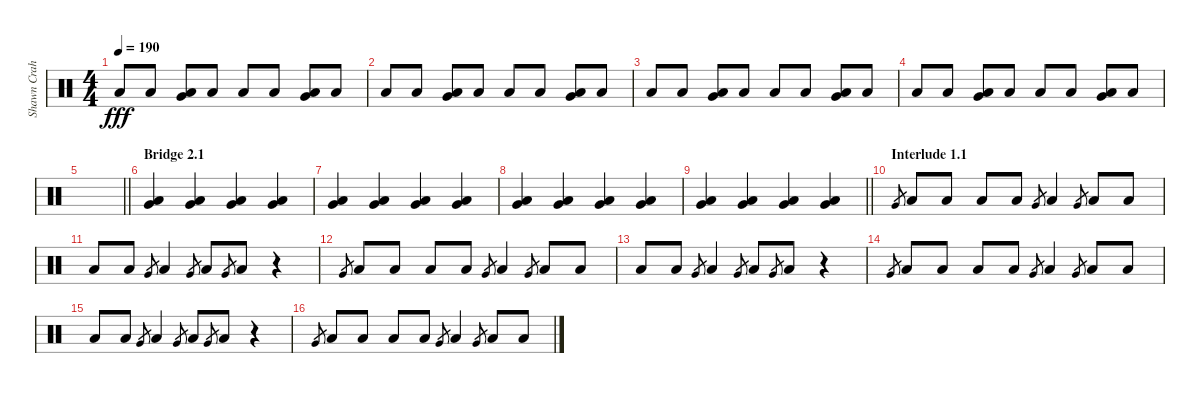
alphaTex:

\track ("Shawn Crahan" "Shawn Crah") {instrument percussion}
\staff {score}
\articulation defaults
\ts (4 4)
\tempo 190
\clef neutral
\ks c "Low Floor Tom (hit)".8{dy fff} "Low Floor Tom (hit)".8
("Very Low Tom (hit)" "Low Floor Tom (hit)").8 "Low Floor Tom (hit)".8 "Low Floor Tom (hit)".8 "Low Floor Tom (hit)".8 ("Very Low Tom (hit)" "Low Floor Tom (hit)").8 "Low Floor Tom (hit)".8 |
"Low Floor Tom (hit)".8 "Low Floor Tom (hit)".8 ("Very Low Tom (hit)" "Low Floor Tom (hit)").8 "Low Floor Tom (hit)".8 "Low Floor Tom (hit)".8 "Low Floor Tom (hit)".8 ("Very Low Tom (hit)" "Low Floor Tom (hit)").8 "Low Floor Tom (hit)".8 |
"Low Floor Tom (hit)".8 "Low Floor Tom (hit)".8 ("Very Low Tom (hit)" "Low Floor Tom (hit)").8 "Low Floor Tom (hit)".8 "Low Floor Tom (hit)".8 "Low Floor Tom (hit)".8 ("Very Low Tom (hit)" "Low Floor Tom (hit)").8 "Low Floor Tom (hit)".8 |
"Low Floor Tom (hit)".8 "Low Floor Tom (hit)".8 ("Very Low Tom (hit)" "Low Floor Tom (hit)").8 "Low Floor Tom (hit)".8 "Low Floor Tom (hit)".8 "Low Floor Tom (hit)".8 ("Very Low Tom (hit)" "Low Floor Tom (hit)").8 "Low Floor Tom (hit)".8 |
\barLineRight lightlight
|
\section ("" "Bridge 2.1")
("Very Low Tom (hit)" "Low Floor Tom (hit)").4 ("Very Low Tom (hit)" "Low Floor Tom (hit)").4 ("Very Low Tom (hit)" "Low Floor Tom (hit)").4 ("Very Low Tom (hit)" "Low Floor Tom (hit)").4 |
("Very Low Tom (hit)" "Low Floor Tom (hit)").4 ("Very Low Tom (hit)" "Low Floor Tom (hit)").4 ("Very Low Tom (hit)" "Low Floor Tom (hit)").4 ("Very Low Tom (hit)" "Low Floor Tom (hit)").4 |
("Very Low Tom (hit)" "Low Floor Tom (hit)").4 ("Very Low Tom (hit)" "Low Floor Tom (hit)").4 ("Very Low Tom (hit)" "Low Floor Tom (hit)").4 ("Very Low Tom (hit)" "Low Floor Tom (hit)").4 |
\barLineRight lightlight
("Very Low Tom (hit)" "Low Floor Tom (hit)").4 ("Very Low Tom (hit)" "Low Floor Tom (hit)").4 ("Very Low Tom (hit)" "Low Floor Tom (hit)").4 ("Very Low Tom (hit)" "Low Floor Tom (hit)").4 |
\section ("" "Interlude 1.1")
"Very Low Tom (hit)".8{gr} "Low Floor Tom (hit)".8 "Low Floor Tom (hit)".8 "Low Floor Tom (hit)".8 "Low Floor Tom (hit)".8 "Very Low Tom (hit)".8{gr} "Low Floor Tom (hit)".4 "Very Low Tom (hit)".8{gr} "Low Floor Tom (hit)".8 "Low Floor Tom (hit)".8 |
"Low Floor Tom (hit)".8 "Low Floor Tom (hit)".8 "Very Low Tom (hit)".8{gr} "Low Floor Tom (hit)".4 "Very Low Tom (hit)".8{gr} "Low Floor Tom (hit)".8 "Very Low Tom (hit)".8{gr} "Low Floor Tom (hit)".8 r.4 |
"Very Low Tom (hit)".8{gr} "Low Floor Tom (hit)".8 "Low Floor Tom (hit)".8 "Low Floor Tom (hit)".8 "Low Floor Tom (hit)".8 "Very Low Tom (hit)".8{gr} "Low Floor Tom (hit)".4 "Very Low Tom (hit)".8{gr} "Low Floor Tom (hit)".8 "Low Floor Tom (hit)".8 |
"Low Floor Tom (hit)".8 "Low Floor Tom (hit)".8 "Very Low Tom (hit)".8{gr} "Low Floor Tom (hit)".4 "Very Low Tom (hit)".8{gr} "Low Floor Tom (hit)".8 "Very Low Tom (hit)".8{gr} "Low Floor Tom (hit)".8 r.4 |
"Very Low Tom (hit)".8{gr} "Low Floor Tom (hit)".8 "Low Floor Tom (hit)".8 "Low Floor Tom (hit)".8 "Low Floor Tom (hit)".8 "Very Low Tom (hit)".8{gr} "Low Floor Tom (hit)".4 "Very Low Tom (hit)".8{gr} "Low Floor Tom (hit)".8 "Low Floor Tom (hit)".8 |
"Low Floor Tom (hit)".8 "Low Floor Tom (hit)".8 "Very Low Tom (hit)".8{gr} "Low Floor Tom (hit)".4 "Very Low Tom (hit)".8{gr} "Low Floor Tom (hit)".8 "Very Low Tom (hit)".8{gr} "Low Floor Tom (hit)".8 r.4 |
"Very Low Tom (hit)".8{gr} "Low Floor Tom (hit)".8 "Low Floor Tom (hit)".8 "Low Floor Tom (hit)".8 "Low Floor Tom (hit)".8 "Very Low Tom (hit)".8{gr} "Low Floor Tom (hit)".4 "Very Low Tom (hit)".8{gr} "Low Floor Tom (hit)".8 "Low Floor Tom (hit)".8
